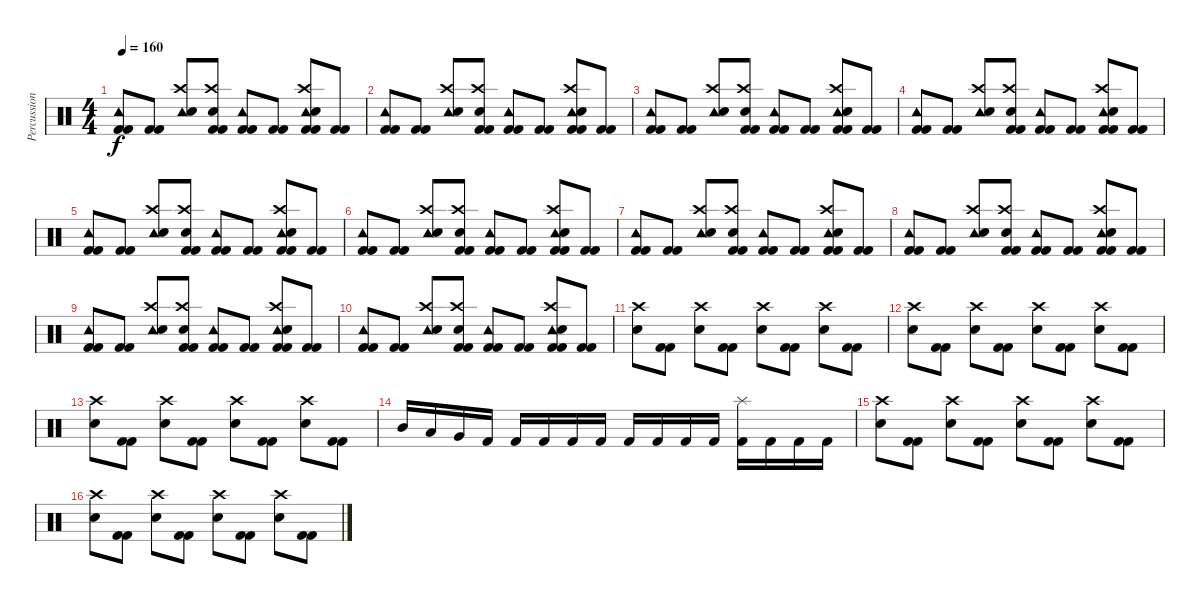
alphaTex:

\track ("Percussion" "Percussion") {instrument percussion}
\staff {score}
\articulation defaults
\ts (4 4)
\tempo 160
\clef neutral
\ks c
("Tambourine (hit)" "Kick (hit) 2" "Kick (hit) 2").8{dy f} ("Kick (hit) 2" "Kick (hit) 2").8 ("Tambourine (hit)" "Crash high (hit)" "Electric Snare (hit)").8 ("Crash high (hit)" "Electric Snare (hit)" "Kick (hit) 2" "Kick (hit) 2").8 ("Tambourine (hit)" "Kick (hit) 2" "Kick (hit) 2").8 ("Kick (hit) 2" "Kick (hit) 2").8 ("Tambourine (hit)" "Crash high (hit)" "Electric Snare (hit)" "Kick (hit) 2" "Kick (hit) 2").8 ("Kick (hit) 2" "Kick (hit) 2").8 |
("Tambourine (hit)" "Kick (hit) 2" "Kick (hit) 2").8 ("Kick (hit) 2" "Kick (hit) 2").8 ("Tambourine (hit)" "Crash high (hit)" "Electric Snare (hit)").8 ("Crash high (hit)" "Electric Snare (hit)" "Kick (hit) 2" "Kick (hit) 2").8 ("Tambourine (hit)" "Kick (hit) 2" "Kick (hit) 2").8 ("Kick (hit) 2" "Kick (hit) 2").8 ("Tambourine (hit)" "Crash high (hit)" "Electric Snare (hit)" "Kick (hit) 2" "Kick (hit) 2").8 ("Kick (hit) 2" "Kick (hit) 2").8 |
("Tambourine (hit)" "Kick (hit) 2" "Kick (hit) 2").8 ("Kick (hit) 2" "Kick (hit) 2").8 ("Tambourine (hit)" "Crash high (hit)" "Electric Snare (hit)").8 ("Crash high (hit)" "Electric Snare (hit)" "Kick (hit) 2" "Kick (hit) 2").8 ("Tambourine (hit)" "Kick (hit) 2" "Kick (hit) 2").8 ("Kick (hit) 2" "Kick (hit) 2").8 ("Tambourine (hit)" "Crash high (hit)" "Electric Snare (hit)" "Kick (hit) 2" "Kick (hit) 2").8 ("Kick (hit) 2" "Kick (hit) 2").8 |
("Tambourine (hit)" "Kick (hit) 2" "Kick (hit) 2").8 ("Kick (hit) 2" "Kick (hit) 2").8 ("Tambourine (hit)" "Crash high (hit)" "Electric Snare (hit)").8 ("Crash high (hit)" "Electric Snare (hit)" "Kick (hit) 2" "Kick (hit) 2").8 ("Tambourine (hit)" "Kick (hit) 2" "Kick (hit) 2").8 ("Kick (hit) 2" "Kick (hit) 2").8 ("Tambourine (hit)" "Crash high (hit)" "Electric Snare (hit)" "Kick (hit) 2" "Kick (hit) 2").8 ("Kick (hit) 2" "Kick (hit) 2").8 |
("Tambourine (hit)" "Kick (hit) 2" "Kick (hit) 2").8 ("Kick (hit) 2" "Kick (hit) 2").8 ("Tambourine (hit)" "Crash high (hit)" "Electric Snare (hit)").8 ("Crash high (hit)" "Electric Snare (hit)" "Kick (hit) 2" "Kick (hit) 2").8 ("Tambourine (hit)" "Kick (hit) 2" "Kick (hit) 2").8 ("Kick (hit) 2" "Kick (hit) 2").8 ("Tambourine (hit)" "Crash high (hit)" "Electric Snare (hit)" "Kick (hit) 2" "Kick (hit) 2").8 ("Kick (hit) 2" "Kick (hit) 2").8 |
("Tambourine (hit)" "Kick (hit) 2" "Kick (hit) 2").8 ("Kick (hit) 2" "Kick (hit) 2").8 ("Tambourine (hit)" "Crash high (hit)" "Electric Snare (hit)").8 ("Crash high (hit)" "Electric Snare (hit)" "Kick (hit) 2" "Kick (hit) 2").8 ("Tambourine (hit)" "Kick (hit) 2" "Kick (hit) 2").8 ("Kick (hit) 2" "Kick (hit) 2").8 ("Tambourine (hit)" "Crash high (hit)" "Electric Snare (hit)" "Kick (hit) 2" "Kick (hit) 2").8 ("Kick (hit) 2" "Kick (hit) 2").8 |
("Tambourine (hit)" "Kick (hit) 2" "Kick (hit) 2").8 ("Kick (hit) 2" "Kick (hit) 2").8 ("Tambourine (hit)" "Crash high (hit)" "Electric Snare (hit)").8 ("Crash high (hit)" "Electric Snare (hit)" "Kick (hit) 2" "Kick (hit) 2").8 ("Tambourine (hit)" "Kick (hit) 2" "Kick (hit) 2").8 ("Kick (hit) 2" "Kick (hit) 2").8 ("Tambourine (hit)" "Crash high (hit)" "Electric Snare (hit)" "Kick (hit) 2" "Kick (hit) 2").8 ("Kick (hit) 2" "Kick (hit) 2").8 |
("Tambourine (hit)" "Kick (hit) 2" "Kick (hit) 2").8 ("Kick (hit) 2" "Kick (hit) 2").8 ("Tambourine (hit)" "Crash high (hit)" "Electric Snare (hit)").8 ("Crash high (hit)" "Electric Snare (hit)" "Kick (hit) 2" "Kick (hit) 2").8 ("Tambourine (hit)" "Kick (hit) 2" "Kick (hit) 2").8 ("Kick (hit) 2" "Kick (hit) 2").8 ("Tambourine (hit)" "Crash high (hit)" "Electric Snare (hit)" "Kick (hit) 2" "Kick (hit) 2").8 ("Kick (hit) 2" "Kick (hit) 2").8 |
("Tambourine (hit)" "Kick (hit) 2" "Kick (hit) 2").8 ("Kick (hit) 2" "Kick (hit) 2").8 ("Tambourine (hit)" "Crash high (hit)" "Electric Snare (hit)").8 ("Crash high (hit)" "Electric Snare (hit)" "Kick (hit) 2" "Kick (hit) 2").8 ("Tambourine (hit)" "Kick (hit) 2" "Kick (hit) 2").8 ("Kick (hit) 2" "Kick (hit) 2").8 ("Tambourine (hit)" "Crash high (hit)" "Electric Snare (hit)" "Kick (hit) 2" "Kick (hit) 2").8 ("Kick (hit) 2" "Kick (hit) 2").8 |
("Tambourine (hit)" "Kick (hit) 2" "Kick (hit) 2").8 ("Kick (hit) 2" "Kick (hit) 2").8 ("Tambourine (hit)" "Crash high (hit)" "Electric Snare (hit)").8 ("Crash high (hit)" "Electric Snare (hit)" "Kick (hit) 2" "Kick (hit) 2").8 ("Tambourine (hit)" "Kick (hit) 2" "Kick (hit) 2").8 ("Kick (hit) 2" "Kick (hit) 2").8 ("Tambourine (hit)" "Crash high (hit)" "Electric Snare (hit)" "Kick (hit) 2" "Kick (hit) 2").8 ("Kick (hit) 2" "Kick (hit) 2").8 |
("Crash high (hit)" "Electric Snare (hit)").8 ("Kick (hit) 2" "Kick (hit) 2").8 ("Crash high (hit)" "Electric Snare (hit)").8 ("Kick (hit) 2" "Kick (hit) 2").8 ("Crash high (hit)" "Electric Snare (hit)").8 ("Kick (hit) 2" "Kick (hit) 2").8 ("Crash high (hit)" "Electric Snare (hit)").8 ("Kick (hit) 2" "Kick (hit) 2").8 |
("Crash high (hit)" "Electric Snare (hit)").8 ("Kick (hit) 2" "Kick (hit) 2").8 ("Crash high (hit)" "Electric Snare (hit)").8 ("Kick (hit) 2" "Kick (hit) 2").8 ("Crash high (hit)" "Electric Snare (hit)").8 ("Kick (hit) 2" "Kick (hit) 2").8 ("Crash high (hit)" "Electric Snare (hit)").8 ("Kick (hit) 2" "Kick (hit) 2").8 |
("Crash high (hit)" "Electric Snare (hit)").8 ("Kick (hit) 2" "Kick (hit) 2").8 ("Crash high (hit)" "Electric Snare (hit)").8 ("Kick (hit) 2" "Kick (hit) 2").8 ("Crash high (hit)" "Electric Snare (hit)").8 ("Kick (hit) 2" "Kick (hit) 2").8 ("Crash high (hit)" "Electric Snare (hit)").8 ("Kick (hit) 2" "Kick (hit) 2").8 |
"Mid Tom (hit)".16 "Low Tom (hit)".16 "Very Low Tom (hit)".16 "Kick (hit) 2".16 "Kick (hit) 2".16 "Kick (hit) 2".16 "Kick (hit) 2".16 "Kick (hit) 2".16 "Kick (hit) 2".16 "Kick (hit) 2".16 "Kick (hit) 2".16 "Kick (hit) 2".16 ("Splash (hit)" "Kick (hit) 2").16 "Kick (hit) 2".16 "Kick (hit) 2".16 "Kick (hit) 2".16 |
("Crash high (hit)" "Electric Snare (hit)").8 ("Kick (hit) 2" "Kick (hit) 2").8 ("Crash high (hit)" "Electric Snare (hit)").8 ("Kick (hit) 2" "Kick (hit) 2").8 ("Crash high (hit)" "Electric Snare (hit)").8 ("Kick (hit) 2" "Kick (hit) 2").8 ("Crash high (hit)" "Electric Snare (hit)").8 ("Kick (hit) 2" "Kick (hit) 2").8 |
("Crash high (hit)" "Electric Snare (hit)").8 ("Kick (hit) 2" "Kick (hit) 2").8 ("Crash high (hit)" "Electric Snare (hit)").8 ("Kick (hit) 2" "Kick (hit) 2").8 ("Crash high (hit)" "Electric Snare (hit)").8 ("Kick (hit) 2" "Kick (hit) 2").8 ("Crash high (hit)" "Electric Snare (hit)").8 ("Kick (hit) 2" "Kick (hit) 2").8
